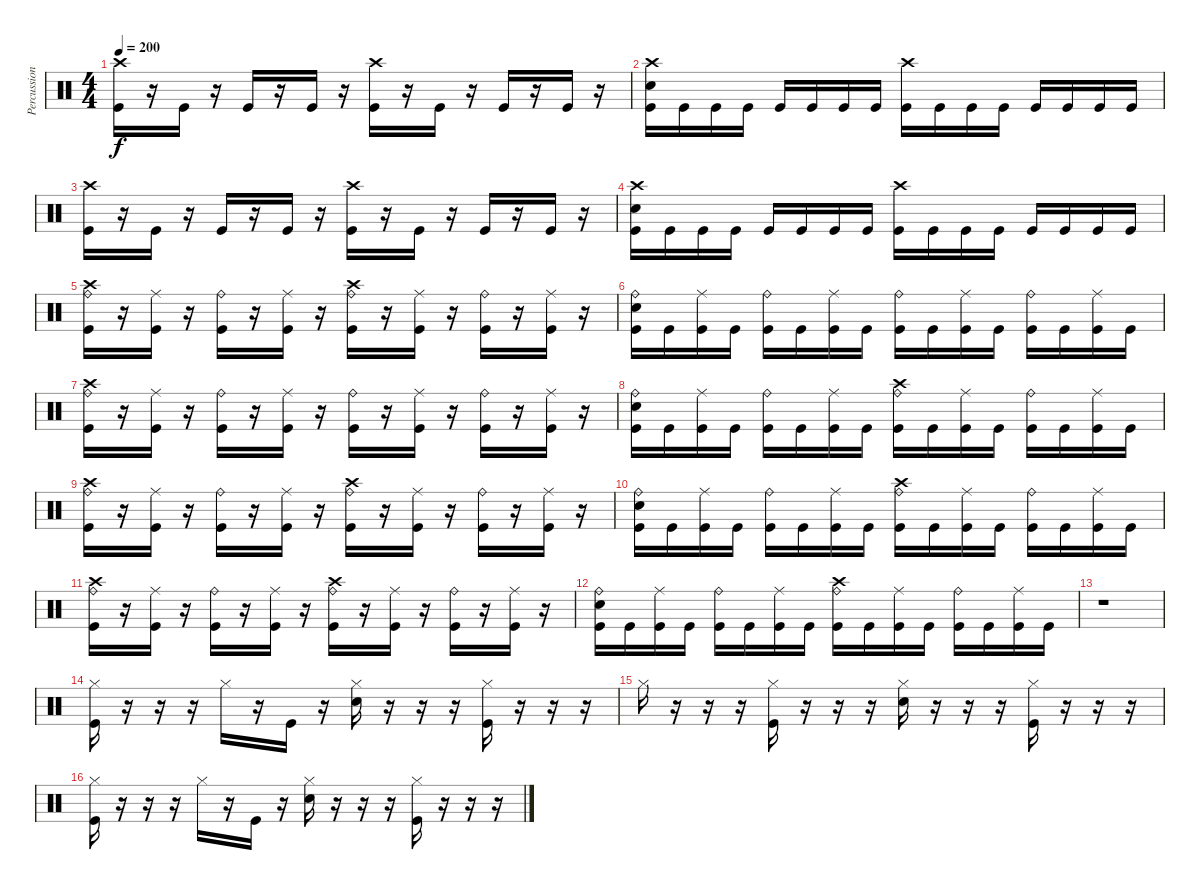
\track ("Percussion" "Percussion") {instrument percussion}
\staff {score}
\articulation defaults
\ts (4 4)
\tempo 200
\clef neutral
\ks c
("Crash high (hit)" "Kick (hit)").16{dy f} r.16 "Kick (hit)".16 r.16 "Kick (hit)".16 r.16 "Kick (hit)".16 r.16 ("Crash high (hit)" "Kick (hit)").16 r.16 "Kick (hit)".16 r.16 "Kick (hit)".16 r.16 "Kick (hit)".16 r.16 |
("Crash high (hit)" "Electric Snare (hit)" "Kick (hit)").16 "Kick (hit)".16 "Kick (hit)".16 "Kick (hit)".16 "Kick (hit)".16 "Kick (hit)".16 "Kick (hit)".16 "Kick (hit)".16 ("Crash high (hit)" "Kick (hit)").16 "Kick (hit)".16 "Kick (hit)".16 "Kick (hit)".16 "Kick (hit)".16 "Kick (hit)".16 "Kick (hit)".16 "Kick (hit)".16 |
("Crash high (hit)" "Kick (hit)").16 r.16 "Kick (hit)".16 r.16 "Kick (hit)".16 r.16 "Kick (hit)".16 r.16 ("Crash high (hit)" "Kick (hit)").16 r.16 "Kick (hit)".16 r.16 "Kick (hit)".16 r.16 "Kick (hit)".16 r.16 |
("Crash high (hit)" "Electric Snare (hit)" "Kick (hit)").16 "Kick (hit)".16 "Kick (hit)".16 "Kick (hit)".16 "Kick (hit)".16 "Kick (hit)".16 "Kick (hit)".16 "Kick (hit)".16 ("Crash high (hit)" "Kick (hit)").16 "Kick (hit)".16 "Kick (hit)".16 "Kick (hit)".16 "Kick (hit)".16 "Kick (hit)".16 "Kick (hit)".16 "Kick (hit)".16 |
("Crash high (hit)" "Ride (bell)" "Kick (hit)").16 r.16 ("Ride (middle)" "Kick (hit)").16 r.16 ("Ride (bell)" "Kick (hit)").16 r.16 ("Ride (middle)" "Kick (hit)").16 r.16 ("Crash high (hit)" "Ride (bell)" "Kick (hit)").16 r.16 ("Ride (middle)" "Kick (hit)").16 r.16 ("Ride (bell)" "Kick (hit)").16 r.16 ("Ride (middle)" "Kick (hit)").16 r.16 |
("Ride (bell)" "Electric Snare (hit)" "Kick (hit)").16 "Kick (hit)".16 ("Ride (middle)" "Kick (hit)").16 "Kick (hit)".16 ("Ride (bell)" "Kick (hit)").16 "Kick (hit)".16 ("Ride (middle)" "Kick (hit)").16 "Kick (hit)".16 ("Ride (bell)" "Kick (hit)").16 "Kick (hit)".16 ("Ride (middle)" "Kick (hit)").16 "Kick (hit)".16 ("Ride (bell)" "Kick (hit)").16 "Kick (hit)".16 ("Ride (middle)" "Kick (hit)").16 "Kick (hit)".16 |
("Crash high (hit)" "Ride (bell)" "Kick (hit)").16 r.16 ("Ride (middle)" "Kick (hit)").16 r.16 ("Ride (bell)" "Kick (hit)").16 r.16 ("Ride (middle)" "Kick (hit)").16 r.16 ("Ride (bell)" "Kick (hit)").16 r.16 ("Ride (middle)" "Kick (hit)").16 r.16 ("Ride (bell)" "Kick (hit)").16 r.16 ("Ride (middle)" "Kick (hit)").16 r.16 |
("Ride (bell)" "Electric Snare (hit)" "Kick (hit)").16 "Kick (hit)".16 ("Ride (middle)" "Kick (hit)").16 "Kick (hit)".16 ("Ride (bell)" "Kick (hit)").16 "Kick (hit)".16 ("Ride (middle)" "Kick (hit)").16 "Kick (hit)".16 ("Crash high (hit)" "Ride (bell)" "Kick (hit)").16 "Kick (hit)".16 ("Ride (middle)" "Kick (hit)").16 "Kick (hit)".16 ("Ride (bell)" "Kick (hit)").16 "Kick (hit)".16 ("Ride (middle)" "Kick (hit)").16 "Kick (hit)".16 |
("Crash high (hit)" "Ride (bell)" "Kick (hit)").16 r.16 ("Ride (middle)" "Kick (hit)").16 r.16 ("Ride (bell)" "Kick (hit)").16 r.16 ("Ride (middle)" "Kick (hit)").16 r.16 ("Crash high (hit)" "Ride (bell)" "Kick (hit)").16 r.16 ("Ride (middle)" "Kick (hit)").16 r.16 ("Ride (bell)" "Kick (hit)").16 r.16 ("Ride (middle)" "Kick (hit)").16 r.16 |
("Ride (bell)" "Electric Snare (hit)" "Kick (hit)").16 "Kick (hit)".16 ("Ride (middle)" "Kick (hit)").16 "Kick (hit)".16 ("Ride (bell)" "Kick (hit)").16 "Kick (hit)".16 ("Ride (middle)" "Kick (hit)").16 "Kick (hit)".16 ("Crash high (hit)" "Ride (bell)" "Kick (hit)").16 "Kick (hit)".16 ("Ride (middle)" "Kick (hit)").16 "Kick (hit)".16 ("Ride (bell)" "Kick (hit)").16 "Kick (hit)".16 ("Ride (middle)" "Kick (hit)").16 "Kick (hit)".16 |
("Crash high (hit)" "Ride (bell)" "Kick (hit)").16 r.16 ("Ride (middle)" "Kick (hit)").16 r.16 ("Ride (bell)" "Kick (hit)").16 r.16 ("Ride (middle)" "Kick (hit)").16 r.16 ("Crash high (hit)" "Ride (bell)" "Kick (hit)").16 r.16 ("Ride (middle)" "Kick (hit)").16 r.16 ("Ride (bell)" "Kick (hit)").16 r.16 ("Ride (middle)" "Kick (hit)").16 r.16 |
("Ride (bell)" "Electric Snare (hit)" "Kick (hit)").16 "Kick (hit)".16 ("Ride (middle)" "Kick (hit)").16 "Kick (hit)".16 ("Ride (bell)" "Kick (hit)").16 "Kick (hit)".16 ("Ride (middle)" "Kick (hit)").16 "Kick (hit)".16 ("Crash high (hit)" "Ride (bell)" "Kick (hit)").16 "Kick (hit)".16 ("Ride (middle)" "Kick (hit)").16 "Kick (hit)".16 ("Ride (bell)" "Kick (hit)").16 "Kick (hit)".16 ("Ride (middle)" "Kick (hit)").16 "Kick (hit)".16 |
r.1 |
("Hi-Hat (closed)" "Kick (hit)").16 r.16 r.16 r.16 "Hi-Hat (closed)".16 r.16 "Kick (hit)".16 r.16 ("Hi-Hat (closed)" "Electric Snare (hit)").16 r.16 r.16 r.16 ("Hi-Hat (closed)" "Kick (hit)").16 r.16 r.16 r.16 |
"Hi-Hat (closed)".16 r.16 r.16 r.16 ("Hi-Hat (closed)" "Kick (hit)").16 r.16 r.16 r.16 ("Hi-Hat (closed)" "Electric Snare (hit)").16 r.16 r.16 r.16 ("Hi-Hat (closed)" "Kick (hit)").16 r.16 r.16 r.16 |
("Hi-Hat (closed)" "Kick (hit)").16 r.16 r.16 r.16 "Hi-Hat (closed)".16 r.16 "Kick (hit)".16 r.16 ("Hi-Hat (closed)" "Electric Snare (hit)").16 r.16 r.16 r.16 ("Hi-Hat (closed)" "Kick (hit)").16 r.16 r.16 r.16
